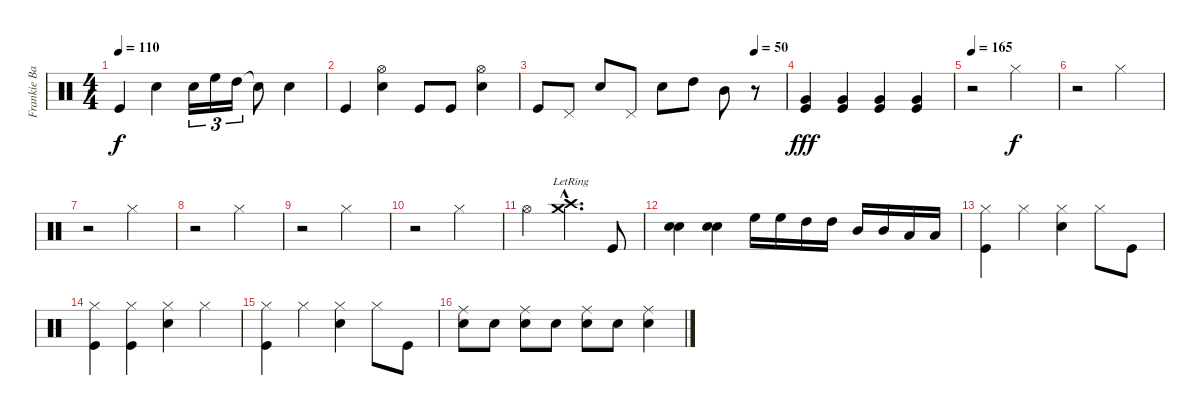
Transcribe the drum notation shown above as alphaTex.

\track ("Frankie Banali/Drums" "Frankie Ba") {instrument percussion}
\staff {score}
\articulation defaults
\ts (4 4)
\tempo 110
\clef neutral
\ks c "Kick (hit)".4{dy f} "Snare (hit) 2".4 "Snare (hit) 2".16{tu (3 2)} "High Floor Tom (hit)".16{tu (3 2)} "High Tom (hit)".16{tu (3 2)} "Snare (hit)"{t}.8 "Snare (hit) 2".4
|
"Kick (hit)".4 ("Snare (hit) 2" "Hi-Hat (open)").4 "Kick (hit)".8 "Kick (hit)".8 ("Snare (hit) 2" "Hi-Hat (open)").4 |
\tempo (50 0.875)
"Kick (hit)".8 "Pedal Hi-Hat (hit)".8 "Snare (hit) 2".8 "Pedal Hi-Hat (hit)".8 "Snare (hit) 2".8 "High Tom (hit)".8 "Mid Tom (hit)".8 r.8 |
("Kick (hit)" "Very Low Tom (hit)").4{dy fff} ("Kick (hit)" "Very Low Tom (hit)").4 ("Kick (hit)" "Very Low Tom (hit)").4 ("Kick (hit)" "Very Low Tom (hit)").4 |
\tempo 165
r.2 "Hi-Hat (closed)".2{dy f} |
r.2 "Hi-Hat (closed)".2 |
r.2 "Hi-Hat (closed)".2 |
r.2 "Hi-Hat (closed)".2 |
r.2 "Hi-Hat (closed)".2 |
r.2 "Hi-Hat (closed)".2 |
"Hi-Hat (open)".2 ("Crash medium (hit)"{hac lr} "Crash high (hit)"{hac lr}).4{d} "Kick (hit)".8 |
("Snare (hit) 2" "Snare (hit) 2").4 ("Snare (hit) 2" "Snare (hit) 2").4 "High Floor Tom (hit)".16 "High Floor Tom (hit)".16 "High Tom (hit)".16 "High Tom (hit)".16 "Mid Tom (hit)".16 "Mid Tom (hit)".16 "Low Tom (hit)".16 "Low Tom (hit)".16 |
("Kick (hit)" "Hi-Hat (closed)").4 "Hi-Hat (closed)".4 ("Snare (hit) 2" "Hi-Hat (closed)").4 "Hi-Hat (closed)".8 "Kick (hit)".8 |
("Kick (hit)" "Hi-Hat (closed)").4 ("Kick (hit)" "Hi-Hat (closed)").4 ("Snare (hit) 2" "Hi-Hat (closed)").4 "Hi-Hat (closed)".4 |
("Kick (hit)" "Hi-Hat (closed)").4 "Hi-Hat (closed)".4 ("Snare (hit) 2" "Hi-Hat (closed)").4 "Hi-Hat (closed)".8 "Kick (hit)".8 |
("Snare (hit) 2" "Ride (middle)").8 "Snare (hit) 2".8 ("Snare (hit) 2" "Ride (middle)").8 "Snare (hit) 2".8 ("Snare (hit) 2" "Ride (middle)").8 "Snare (hit) 2".8 ("Snare (hit) 2" "Ride (middle)").4
